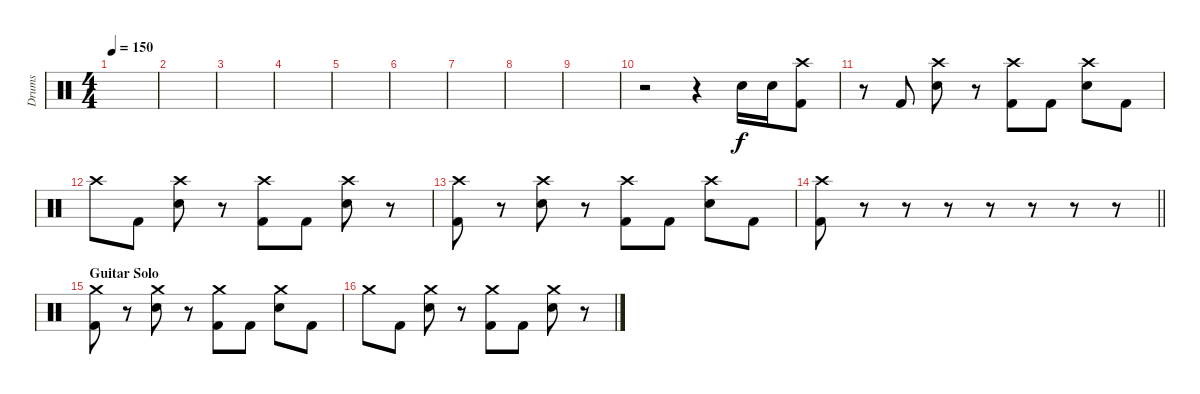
\track ("Drums" "Drums") {instrument percussion}
\staff {score}
\articulation defaults
\ts (4 4)
\tempo 150
\clef neutral
\ks c
|
|
|
|
|
|
|
|
|
r.2 r.4 "Electric Snare (hit)".16 "Electric Snare (hit)".16 ("Crash high (hit)" "Kick (hit) 2").8 |
r.8 "Kick (hit) 2".8 ("Crash high (hit)" "Electric Snare (hit)").8 r.8 ("Crash high (hit)" "Kick (hit) 2").8 "Kick (hit) 2".8 ("Crash high (hit)" "Electric Snare (hit)").8 "Kick (hit) 2".8 |
"Crash high (hit)".8 "Kick (hit) 2".8 ("Crash high (hit)" "Electric Snare (hit)").8 r.8 ("Crash high (hit)" "Kick (hit) 2").8 "Kick (hit) 2".8 ("Crash high (hit)" "Electric Snare (hit)").8 r.8 |
("Crash high (hit)" "Kick (hit) 2").8 r.8 ("Crash high (hit)" "Electric Snare (hit)").8 r.8 ("Crash high (hit)" "Kick (hit) 2").8 "Kick (hit) 2".8 ("Crash high (hit)" "Electric Snare (hit)").8 "Kick (hit) 2".8 |
\barLineRight lightlight
("Crash high (hit)" "Kick (hit) 2").8 r.8 r.8 r.8 r.8 r.8 r.8 r.8 |
\section ("" "Guitar Solo")
("Crash medium (hit)" "Kick (hit) 2").8 r.8 ("Crash medium (hit)" "Electric Snare (hit)").8 r.8 ("Crash medium (hit)" "Kick (hit) 2").8 "Kick (hit) 2".8 ("Crash medium (hit)" "Electric Snare (hit)").8 "Kick (hit) 2".8 |
"Crash medium (hit)".8 "Kick (hit) 2".8 ("Crash medium (hit)" "Electric Snare (hit)").8 r.8 ("Crash medium (hit)" "Kick (hit) 2").8 "Kick (hit) 2".8 ("Crash medium (hit)" "Electric Snare (hit)").8 r.8
